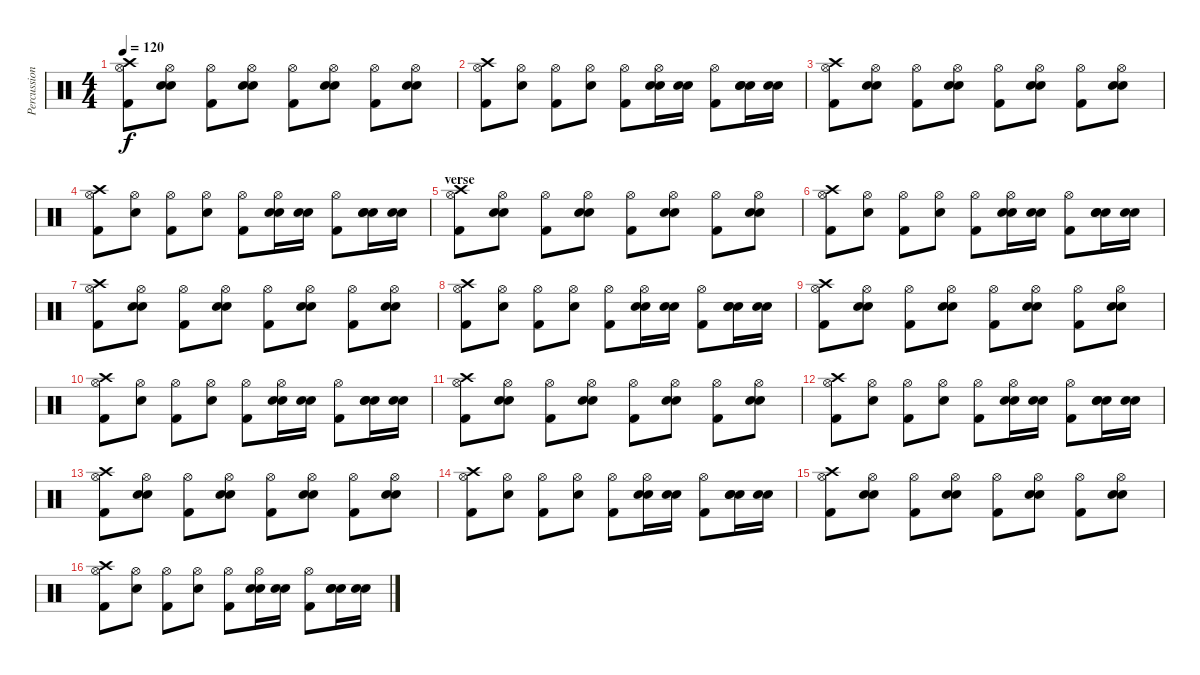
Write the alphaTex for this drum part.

\track ("Percussion" "Percussion") {instrument percussion}
\staff {score}
\articulation defaults
\ts (4 4)
\tempo 120
\clef neutral
\ks c
("Hi-Hat (open)" "Crash high (hit)" "Kick (hit) 2").8{dy f} ("Hi-Hat (open)" "Electric Snare (hit)" "Snare (hit) 2").8 ("Hi-Hat (open)" "Kick (hit) 2").8 ("Hi-Hat (open)" "Electric Snare (hit)" "Snare (hit) 2").8 ("Hi-Hat (open)" "Kick (hit) 2").8 ("Hi-Hat (open)" "Electric Snare (hit)" "Snare (hit) 2").8 ("Hi-Hat (open)" "Kick (hit) 2").8 ("Hi-Hat (open)" "Electric Snare (hit)" "Snare (hit) 2").8 |
("Hi-Hat (open)" "Crash high (hit)" "Kick (hit) 2").8 ("Hi-Hat (open)" "Electric Snare (hit)").8 ("Hi-Hat (open)" "Kick (hit) 2").8 ("Hi-Hat (open)" "Electric Snare (hit)").8 ("Hi-Hat (open)" "Kick (hit) 2").8 ("Hi-Hat (open)" "Electric Snare (hit)" "Snare (hit) 2").16 ("Electric Snare (hit)" "Snare (hit) 2").16 ("Hi-Hat (open)" "Kick (hit) 2").8 ("Electric Snare (hit)" "Electric Snare (hit)" "Snare (hit) 2").16 ("Electric Snare (hit)" "Snare (hit) 2").16 |
("Hi-Hat (open)" "Crash high (hit)" "Kick (hit) 2").8 ("Hi-Hat (open)" "Electric Snare (hit)" "Snare (hit) 2").8 ("Hi-Hat (open)" "Kick (hit) 2").8 ("Hi-Hat (open)" "Electric Snare (hit)" "Snare (hit) 2").8 ("Hi-Hat (open)" "Kick (hit) 2").8 ("Hi-Hat (open)" "Electric Snare (hit)" "Snare (hit) 2").8 ("Hi-Hat (open)" "Kick (hit) 2").8 ("Hi-Hat (open)" "Electric Snare (hit)" "Snare (hit) 2").8 |
("Hi-Hat (open)" "Crash high (hit)" "Kick (hit) 2").8 ("Hi-Hat (open)" "Electric Snare (hit)").8 ("Hi-Hat (open)" "Kick (hit) 2").8 ("Hi-Hat (open)" "Electric Snare (hit)").8 ("Hi-Hat (open)" "Kick (hit) 2").8 ("Hi-Hat (open)" "Electric Snare (hit)" "Snare (hit) 2").16 ("Electric Snare (hit)" "Snare (hit) 2").16 ("Hi-Hat (open)" "Kick (hit) 2").8 ("Electric Snare (hit)" "Electric Snare (hit)" "Snare (hit) 2").16 ("Electric Snare (hit)" "Snare (hit) 2").16 |
\section ("" "verse")
("Hi-Hat (open)" "Crash high (hit)" "Kick (hit) 2").8 ("Hi-Hat (open)" "Electric Snare (hit)" "Snare (hit) 2").8 ("Hi-Hat (open)" "Kick (hit) 2").8 ("Hi-Hat (open)" "Electric Snare (hit)" "Snare (hit) 2").8 ("Hi-Hat (open)" "Kick (hit) 2").8 ("Hi-Hat (open)" "Electric Snare (hit)" "Snare (hit) 2").8 ("Hi-Hat (open)" "Kick (hit) 2").8 ("Hi-Hat (open)" "Electric Snare (hit)" "Snare (hit) 2").8 |
("Hi-Hat (open)" "Crash high (hit)" "Kick (hit) 2").8 ("Hi-Hat (open)" "Electric Snare (hit)").8 ("Hi-Hat (open)" "Kick (hit) 2").8 ("Hi-Hat (open)" "Electric Snare (hit)").8 ("Hi-Hat (open)" "Kick (hit) 2").8 ("Hi-Hat (open)" "Electric Snare (hit)" "Snare (hit) 2").16 ("Electric Snare (hit)" "Snare (hit) 2").16 ("Hi-Hat (open)" "Kick (hit) 2").8 ("Electric Snare (hit)" "Electric Snare (hit)" "Snare (hit) 2").16 ("Electric Snare (hit)" "Snare (hit) 2").16 |
("Hi-Hat (open)" "Crash high (hit)" "Kick (hit) 2").8 ("Hi-Hat (open)" "Electric Snare (hit)" "Snare (hit) 2").8 ("Hi-Hat (open)" "Kick (hit) 2").8 ("Hi-Hat (open)" "Electric Snare (hit)" "Snare (hit) 2").8 ("Hi-Hat (open)" "Kick (hit) 2").8 ("Hi-Hat (open)" "Electric Snare (hit)" "Snare (hit) 2").8 ("Hi-Hat (open)" "Kick (hit) 2").8 ("Hi-Hat (open)" "Electric Snare (hit)" "Snare (hit) 2").8 |
("Hi-Hat (open)" "Crash high (hit)" "Kick (hit) 2").8 ("Hi-Hat (open)" "Electric Snare (hit)").8 ("Hi-Hat (open)" "Kick (hit) 2").8 ("Hi-Hat (open)" "Electric Snare (hit)").8 ("Hi-Hat (open)" "Kick (hit) 2").8 ("Hi-Hat (open)" "Electric Snare (hit)" "Snare (hit) 2").16 ("Electric Snare (hit)" "Snare (hit) 2").16 ("Hi-Hat (open)" "Kick (hit) 2").8 ("Electric Snare (hit)" "Electric Snare (hit)" "Snare (hit) 2").16 ("Electric Snare (hit)" "Snare (hit) 2").16 |
("Hi-Hat (open)" "Crash high (hit)" "Kick (hit) 2").8 ("Hi-Hat (open)" "Electric Snare (hit)" "Snare (hit) 2").8 ("Hi-Hat (open)" "Kick (hit) 2").8 ("Hi-Hat (open)" "Electric Snare (hit)" "Snare (hit) 2").8 ("Hi-Hat (open)" "Kick (hit) 2").8 ("Hi-Hat (open)" "Electric Snare (hit)" "Snare (hit) 2").8 ("Hi-Hat (open)" "Kick (hit) 2").8 ("Hi-Hat (open)" "Electric Snare (hit)" "Snare (hit) 2").8 |
("Hi-Hat (open)" "Crash high (hit)" "Kick (hit) 2").8 ("Hi-Hat (open)" "Electric Snare (hit)").8 ("Hi-Hat (open)" "Kick (hit) 2").8 ("Hi-Hat (open)" "Electric Snare (hit)").8 ("Hi-Hat (open)" "Kick (hit) 2").8 ("Hi-Hat (open)" "Electric Snare (hit)" "Snare (hit) 2").16 ("Electric Snare (hit)" "Snare (hit) 2").16 ("Hi-Hat (open)" "Kick (hit) 2").8 ("Electric Snare (hit)" "Electric Snare (hit)" "Snare (hit) 2").16 ("Electric Snare (hit)" "Snare (hit) 2").16 |
("Hi-Hat (open)" "Crash high (hit)" "Kick (hit) 2").8 ("Hi-Hat (open)" "Electric Snare (hit)" "Snare (hit) 2").8 ("Hi-Hat (open)" "Kick (hit) 2").8 ("Hi-Hat (open)" "Electric Snare (hit)" "Snare (hit) 2").8 ("Hi-Hat (open)" "Kick (hit) 2").8 ("Hi-Hat (open)" "Electric Snare (hit)" "Snare (hit) 2").8 ("Hi-Hat (open)" "Kick (hit) 2").8 ("Hi-Hat (open)" "Electric Snare (hit)" "Snare (hit) 2").8 |
("Hi-Hat (open)" "Crash high (hit)" "Kick (hit) 2").8 ("Hi-Hat (open)" "Electric Snare (hit)").8 ("Hi-Hat (open)" "Kick (hit) 2").8 ("Hi-Hat (open)" "Electric Snare (hit)").8 ("Hi-Hat (open)" "Kick (hit) 2").8 ("Hi-Hat (open)" "Electric Snare (hit)" "Snare (hit) 2").16 ("Electric Snare (hit)" "Snare (hit) 2").16 ("Hi-Hat (open)" "Kick (hit) 2").8 ("Electric Snare (hit)" "Electric Snare (hit)" "Snare (hit) 2").16 ("Electric Snare (hit)" "Snare (hit) 2").16 |
("Hi-Hat (open)" "Crash high (hit)" "Kick (hit) 2").8 ("Hi-Hat (open)" "Electric Snare (hit)" "Snare (hit) 2").8 ("Hi-Hat (open)" "Kick (hit) 2").8 ("Hi-Hat (open)" "Electric Snare (hit)" "Snare (hit) 2").8 ("Hi-Hat (open)" "Kick (hit) 2").8 ("Hi-Hat (open)" "Electric Snare (hit)" "Snare (hit) 2").8 ("Hi-Hat (open)" "Kick (hit) 2").8 ("Hi-Hat (open)" "Electric Snare (hit)" "Snare (hit) 2").8 |
("Hi-Hat (open)" "Crash high (hit)" "Kick (hit) 2").8 ("Hi-Hat (open)" "Electric Snare (hit)").8 ("Hi-Hat (open)" "Kick (hit) 2").8 ("Hi-Hat (open)" "Electric Snare (hit)").8 ("Hi-Hat (open)" "Kick (hit) 2").8 ("Hi-Hat (open)" "Electric Snare (hit)" "Snare (hit) 2").16 ("Electric Snare (hit)" "Snare (hit) 2").16 ("Hi-Hat (open)" "Kick (hit) 2").8 ("Electric Snare (hit)" "Electric Snare (hit)" "Snare (hit) 2").16 ("Electric Snare (hit)" "Snare (hit) 2").16 |
("Hi-Hat (open)" "Crash high (hit)" "Kick (hit) 2").8 ("Hi-Hat (open)" "Electric Snare (hit)" "Snare (hit) 2").8 ("Hi-Hat (open)" "Kick (hit) 2").8 ("Hi-Hat (open)" "Electric Snare (hit)" "Snare (hit) 2").8 ("Hi-Hat (open)" "Kick (hit) 2").8 ("Hi-Hat (open)" "Electric Snare (hit)" "Snare (hit) 2").8 ("Hi-Hat (open)" "Kick (hit) 2").8 ("Hi-Hat (open)" "Electric Snare (hit)" "Snare (hit) 2").8 |
("Hi-Hat (open)" "Crash high (hit)" "Kick (hit) 2").8 ("Hi-Hat (open)" "Electric Snare (hit)").8 ("Hi-Hat (open)" "Kick (hit) 2").8 ("Hi-Hat (open)" "Electric Snare (hit)").8 ("Hi-Hat (open)" "Kick (hit) 2").8 ("Hi-Hat (open)" "Electric Snare (hit)" "Snare (hit) 2").16 ("Electric Snare (hit)" "Snare (hit) 2").16 ("Hi-Hat (open)" "Kick (hit) 2").8 ("Electric Snare (hit)" "Electric Snare (hit)" "Snare (hit) 2").16 ("Electric Snare (hit)" "Snare (hit) 2").16
